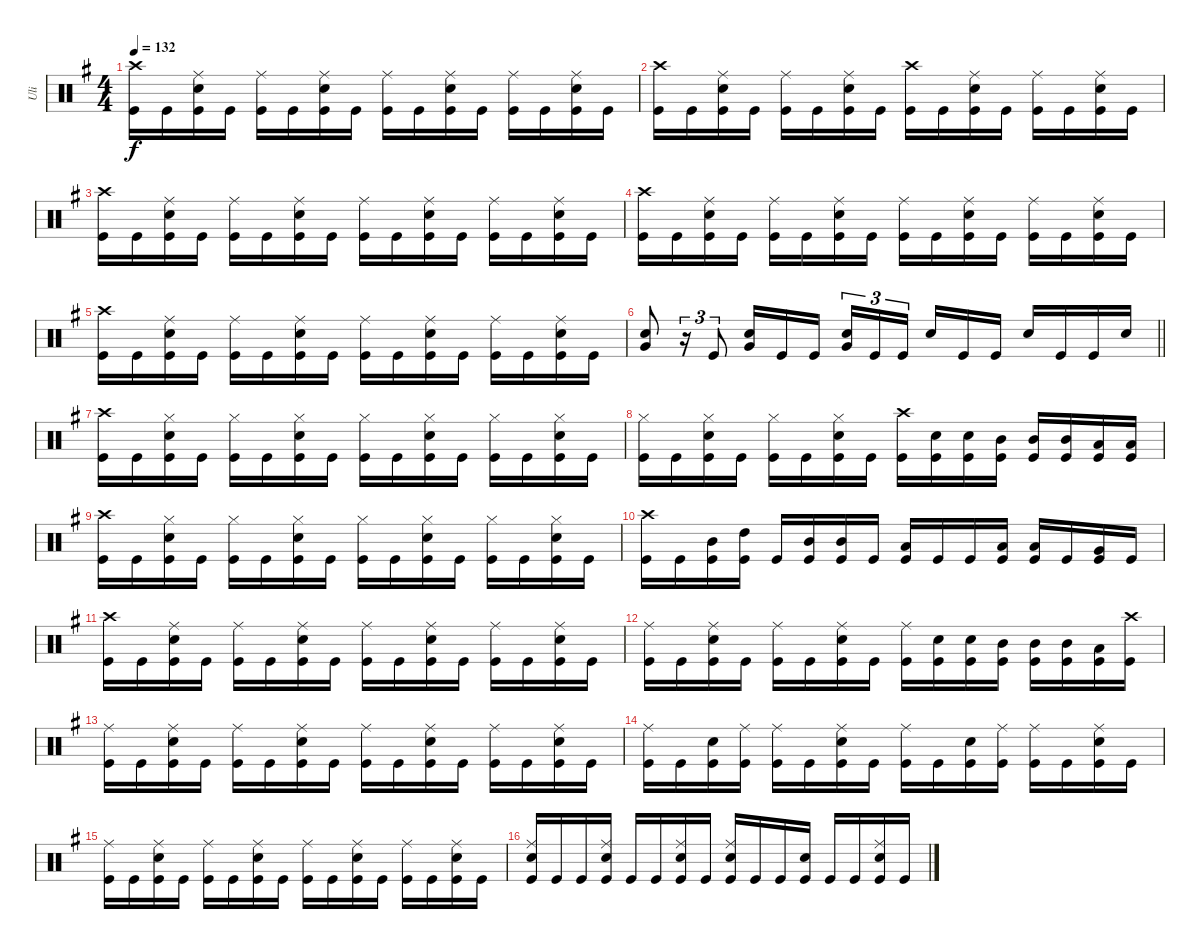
\track ("Uli" "Uli") {instrument percussion}
\staff {score}
\articulation defaults
\ts (4 4)
\tempo 132
\clef neutral
\ks eminor
("Crash high (hit)" "Kick (hit)").16{dy f} "Kick (hit)".16 ("Ride (middle)" "Snare (hit) 2" "Kick (hit)").16 "Kick (hit)".16 ("Ride (middle)" "Kick (hit)").16 "Kick (hit)".16 ("Ride (middle)" "Snare (hit) 2" "Kick (hit)").16 "Kick (hit)".16 ("Ride (middle)" "Kick (hit)").16 "Kick (hit)".16 ("Ride (middle)" "Snare (hit) 2" "Kick (hit)").16 "Kick (hit)".16 ("Ride (middle)" "Kick (hit)").16 "Kick (hit)".16 ("Ride (middle)" "Snare (hit) 2" "Kick (hit)").16 "Kick (hit)".16 |
("Crash high (hit)" "Kick (hit)").16 "Kick (hit)".16 ("Ride (middle)" "Snare (hit) 2" "Kick (hit)").16 "Kick (hit)".16 ("Ride (middle)" "Kick (hit)").16 "Kick (hit)".16 ("Ride (middle)" "Snare (hit) 2" "Kick (hit)").16 "Kick (hit)".16 ("Crash high (hit)" "Kick (hit)").16 "Kick (hit)".16 ("Ride (middle)" "Snare (hit) 2" "Kick (hit)").16 "Kick (hit)".16 ("Ride (middle)" "Kick (hit)").16 "Kick (hit)".16 ("Ride (middle)" "Snare (hit) 2" "Kick (hit)").16 "Kick (hit)".16 |
("Crash high (hit)" "Kick (hit)").16 "Kick (hit)".16 ("Ride (middle)" "Snare (hit) 2" "Kick (hit)").16 "Kick (hit)".16 ("Ride (middle)" "Kick (hit)").16 "Kick (hit)".16 ("Ride (middle)" "Snare (hit) 2" "Kick (hit)").16 "Kick (hit)".16 ("Ride (middle)" "Kick (hit)").16 "Kick (hit)".16 ("Ride (middle)" "Snare (hit) 2" "Kick (hit)").16 "Kick (hit)".16 ("Ride (middle)" "Kick (hit)").16 "Kick (hit)".16 ("Ride (middle)" "Snare (hit) 2" "Kick (hit)").16 "Kick (hit)".16 |
("Crash high (hit)" "Kick (hit)").16 "Kick (hit)".16 ("Ride (middle)" "Snare (hit) 2" "Kick (hit)").16 "Kick (hit)".16 ("Ride (middle)" "Kick (hit)").16 "Kick (hit)".16 ("Ride (middle)" "Snare (hit) 2" "Kick (hit)").16 "Kick (hit)".16 ("Ride (middle)" "Kick (hit)").16 "Kick (hit)".16 ("Ride (middle)" "Snare (hit) 2" "Kick (hit)").16 "Kick (hit)".16 ("Ride (middle)" "Kick (hit)").16 "Kick (hit)".16 ("Ride (middle)" "Snare (hit) 2" "Kick (hit)").16 "Kick (hit)".16 |
("Crash high (hit)" "Kick (hit)").16 "Kick (hit)".16 ("Ride (middle)" "Snare (hit) 2" "Kick (hit)").16 "Kick (hit)".16 ("Ride (middle)" "Kick (hit)").16 "Kick (hit)".16 ("Ride (middle)" "Snare (hit) 2" "Kick (hit)").16 "Kick (hit)".16 ("Ride (middle)" "Kick (hit)").16 "Kick (hit)".16 ("Ride (middle)" "Snare (hit) 2" "Kick (hit)").16 "Kick (hit)".16 ("Ride (middle)" "Kick (hit)").16 "Kick (hit)".16 ("Ride (middle)" "Snare (hit) 2" "Kick (hit)").16 "Kick (hit)".16 |
\barLineRight lightlight
("Snare (hit) 2" "Very Low Tom (hit)").8 r.16{tu (3 2)} "Kick (hit)".8{tu (3 2)} ("Snare (hit) 2" "Very Low Tom (hit)").16 "Kick (hit)".16 "Kick (hit)".16{beam splitsecondary} ("Snare (hit) 2" "Very Low Tom (hit)").16{tu (3 2)} "Kick (hit)".16{tu (3 2)} "Kick (hit)".16{tu (3 2) beam splitsecondary} "Snare (hit) 2".16 "Kick (hit)".16 "Kick (hit)".16 "Snare (hit) 2".16 "Kick (hit)".16 "Kick (hit)".16 "Snare (hit) 2".16 |
("Crash high (hit)" "Kick (hit)").16 "Kick (hit)".16 ("Hi-Hat (closed)" "Snare (hit) 2" "Kick (hit)").16 "Kick (hit)".16 ("Hi-Hat (closed)" "Kick (hit)").16 "Kick (hit)".16 ("Hi-Hat (closed)" "Snare (hit) 2" "Kick (hit)").16 "Kick (hit)".16 ("Hi-Hat (closed)" "Kick (hit)").16 "Kick (hit)".16 ("Hi-Hat (closed)" "Snare (hit) 2" "Kick (hit)").16 "Kick (hit)".16 ("Hi-Hat (closed)" "Kick (hit)").16 "Kick (hit)".16 ("Hi-Hat (closed)" "Snare (hit) 2" "Kick (hit)").16 "Kick (hit)".16 |
("Hi-Hat (closed)" "Kick (hit)").16 "Kick (hit)".16 ("Hi-Hat (closed)" "Snare (hit) 2" "Kick (hit)").16 "Kick (hit)".16 ("Hi-Hat (closed)" "Kick (hit)").16 "Kick (hit)".16 ("Hi-Hat (closed)" "Snare (hit) 2" "Kick (hit)").16 "Kick (hit)".16 ("Crash high (hit)" "Kick (hit)").16 ("Snare (hit) 2" "Kick (hit)").16 ("Snare (hit) 2" "Kick (hit)").16 ("Mid Tom (hit)" "Kick (hit)").16 ("Mid Tom (hit)" "Kick (hit)").16 ("Mid Tom (hit)" "Kick (hit)").16 ("Low Tom (hit)" "Kick (hit)").16 ("Low Tom (hit)" "Kick (hit)").16 |
("Crash high (hit)" "Kick (hit)").16 "Kick (hit)".16 ("Hi-Hat (closed)" "Snare (hit) 2" "Kick (hit)").16 "Kick (hit)".16 ("Hi-Hat (closed)" "Kick (hit)").16 "Kick (hit)".16 ("Hi-Hat (closed)" "Snare (hit) 2" "Kick (hit)").16 "Kick (hit)".16 ("Hi-Hat (closed)" "Kick (hit)").16 "Kick (hit)".16 ("Hi-Hat (closed)" "Snare (hit) 2" "Kick (hit)").16 "Kick (hit)".16 ("Hi-Hat (closed)" "Kick (hit)").16 "Kick (hit)".16 ("Hi-Hat (closed)" "Snare (hit) 2" "Kick (hit)").16 "Kick (hit)".16 |
("Crash high (hit)" "Kick (hit)").16 "Kick (hit)".16 ("Mid Tom (hit)" "Kick (hit)").16 ("High Tom (hit)" "Kick (hit)").16 "Kick (hit)".16 ("Mid Tom (hit)" "Kick (hit)").16 ("Mid Tom (hit)" "Kick (hit)").16 "Kick (hit)".16 ("Low Tom (hit)" "Kick (hit)").16 "Kick (hit)".16 "Kick (hit)".16 ("Low Tom (hit)" "Kick (hit)").16 ("Low Tom (hit)" "Kick (hit)").16 "Kick (hit)".16 ("Very Low Tom (hit)" "Kick (hit)").16 "Kick (hit)".16 |
("Crash high (hit)" "Kick (hit)").16 "Kick (hit)".16 ("Ride (middle)" "Snare (hit) 2" "Kick (hit)").16 "Kick (hit)".16 ("Ride (middle)" "Kick (hit)").16 "Kick (hit)".16 ("Ride (middle)" "Snare (hit) 2" "Kick (hit)").16 "Kick (hit)".16 ("Ride (middle)" "Kick (hit)").16 "Kick (hit)".16 ("Ride (middle)" "Snare (hit) 2" "Kick (hit)").16 "Kick (hit)".16 ("Ride (middle)" "Kick (hit)").16 "Kick (hit)".16 ("Ride (middle)" "Snare (hit) 2" "Kick (hit)").16 "Kick (hit)".16 |
("Ride (middle)" "Kick (hit)").16 "Kick (hit)".16 ("Ride (middle)" "Snare (hit) 2" "Kick (hit)").16 "Kick (hit)".16 ("Ride (middle)" "Kick (hit)").16 "Kick (hit)".16 ("Ride (middle)" "Snare (hit) 2" "Kick (hit)").16 "Kick (hit)".16 ("Ride (middle)" "Kick (hit)").16 ("Snare (hit) 2" "Kick (hit)").16 ("Snare (hit) 2" "Kick (hit)").16 ("Mid Tom (hit)" "Kick (hit)").16 ("Mid Tom (hit)" "Kick (hit)").16 ("Mid Tom (hit)" "Kick (hit)").16 ("Low Tom (hit)" "Kick (hit)").16 ("Crash high (hit)" "Kick (hit)").16 |
("Ride (middle)" "Kick (hit)").16 "Kick (hit)".16 ("Ride (middle)" "Snare (hit) 2" "Kick (hit)").16 "Kick (hit)".16 ("Ride (middle)" "Kick (hit)").16 "Kick (hit)".16 ("Ride (middle)" "Snare (hit) 2" "Kick (hit)").16 "Kick (hit)".16 ("Ride (middle)" "Kick (hit)").16 "Kick (hit)".16 ("Ride (middle)" "Snare (hit) 2" "Kick (hit)").16 "Kick (hit)".16 ("Ride (middle)" "Kick (hit)").16 "Kick (hit)".16 ("Ride (middle)" "Snare (hit) 2" "Kick (hit)").16 "Kick (hit)".16 |
("Ride (middle)" "Kick (hit)").16 "Kick (hit)".16 ("Snare (hit) 2" "Kick (hit)").16 ("Ride (middle)" "Kick (hit)").16 ("Ride (middle)" "Kick (hit)").16 "Kick (hit)".16 ("Ride (middle)" "Snare (hit) 2" "Kick (hit)").16 "Kick (hit)".16 ("Ride (middle)" "Kick (hit)").16 "Kick (hit)".16 ("Snare (hit) 2" "Kick (hit)").16 ("Ride (middle)" "Kick (hit)").16 ("Ride (middle)" "Kick (hit)").16 "Kick (hit)".16 ("Ride (middle)" "Snare (hit) 2" "Kick (hit)").16 "Kick (hit)".16 |
("Ride (middle)" "Kick (hit)").16 "Kick (hit)".16 ("Ride (middle)" "Snare (hit) 2" "Kick (hit)").16 "Kick (hit)".16 ("Ride (middle)" "Kick (hit)").16 "Kick (hit)".16 ("Ride (middle)" "Snare (hit) 2" "Kick (hit)").16 "Kick (hit)".16 ("Ride (middle)" "Kick (hit)").16 "Kick (hit)".16 ("Ride (middle)" "Snare (hit) 2" "Kick (hit)").16 "Kick (hit)".16 ("Ride (middle)" "Kick (hit)").16 "Kick (hit)".16 ("Ride (middle)" "Snare (hit) 2" "Kick (hit)").16 "Kick (hit)".16 |
("Ride (middle)" "Snare (hit) 2" "Kick (hit)").16 "Kick (hit)".16 "Kick (hit)".16 ("Ride (middle)" "Snare (hit) 2" "Kick (hit)").16 "Kick (hit)".16 "Kick (hit)".16 ("Ride (middle)" "Snare (hit) 2" "Kick (hit)").16 "Kick (hit)".16 ("Ride (middle)" "Snare (hit) 2" "Kick (hit)").16 "Kick (hit)".16 "Kick (hit)".16 ("Snare (hit) 2" "Kick (hit)").16 "Kick (hit)".16 "Kick (hit)".16 ("Ride (middle)" "Snare (hit) 2" "Kick (hit)").16 "Kick (hit)".16
